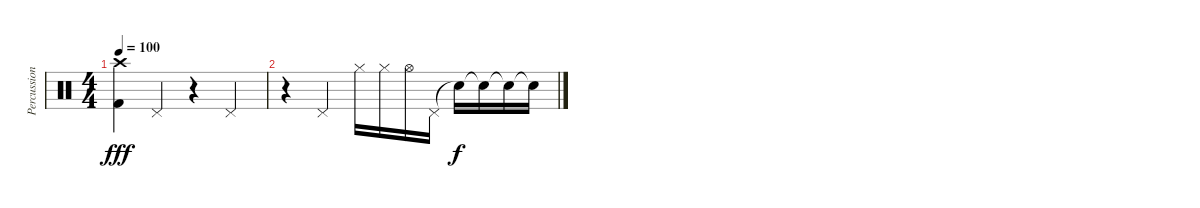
\track ("Percussion" "Percussion") {instrument percussion}
\staff {score}
\articulation defaults
\ts (4 4)
\tempo 100
\clef neutral
\ks c
("Crash high (hit)" "Kick (hit) 2").4{dy fff} "Pedal Hi-Hat (hit)".4 r.4 "Pedal Hi-Hat (hit)".4 |
r.4 "Pedal Hi-Hat (hit)".4 "Hi-Hat (closed)".16 "Hi-Hat (closed)".16 "Hi-Hat (open)".16 "Pedal Hi-Hat (hit)".16 "Snare (hit)"{t}.16{dy f} "Snare (hit)"{t}.16 "Snare (hit)"{t}.16 "Snare (hit)"{t}.16
